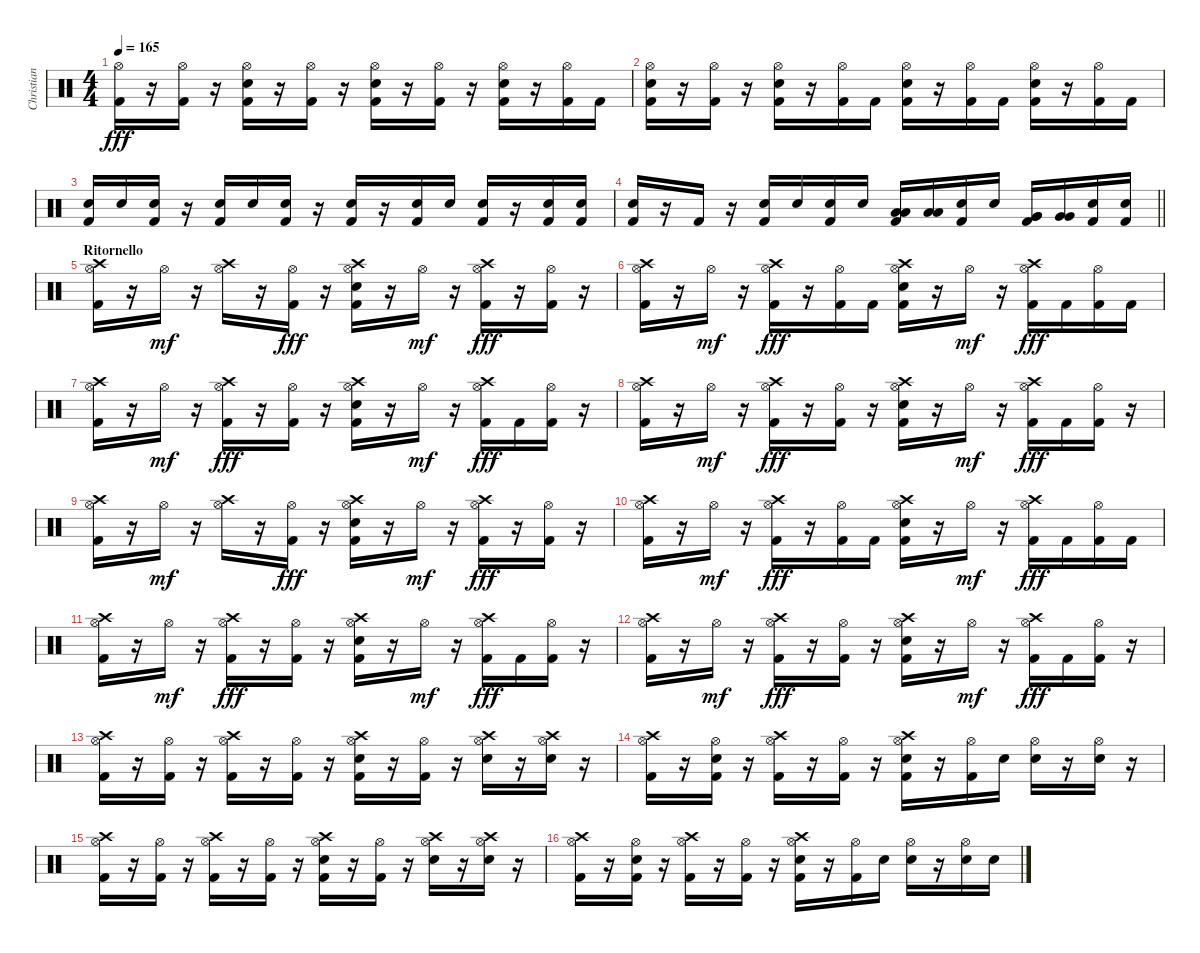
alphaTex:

\track ("Christian Coma Mora (CC)" "Christian ") {instrument percussion}
\staff {score}
\articulation defaults
\ts (4 4)
\tempo 165
\clef neutral
\ks c
("Hi-Hat (open)" "Kick (hit) 2").16{dy fff} r.16 ("Hi-Hat (open)" "Kick (hit) 2").16 r.16 ("Hi-Hat (open)" "Snare (hit) 2" "Kick (hit) 2").16 r.16 ("Hi-Hat (open)" "Kick (hit) 2").16 r.16 ("Hi-Hat (open)" "Snare (hit) 2" "Kick (hit) 2").16 r.16 ("Hi-Hat (open)" "Kick (hit) 2").16 r.16 ("Hi-Hat (open)" "Snare (hit) 2" "Kick (hit) 2").16 r.16 ("Hi-Hat (open)" "Kick (hit) 2").16 "Kick (hit) 2".16 |
("Hi-Hat (open)" "Snare (hit) 2" "Kick (hit) 2").16 r.16 ("Hi-Hat (open)" "Kick (hit) 2").16 r.16 ("Hi-Hat (open)" "Snare (hit) 2" "Kick (hit) 2").16 r.16 ("Hi-Hat (open)" "Kick (hit) 2").16 "Kick (hit) 2".16 ("Hi-Hat (open)" "Snare (hit) 2" "Kick (hit) 2").16 r.16 ("Hi-Hat (open)" "Kick (hit) 2").16 "Kick (hit) 2".16 ("Hi-Hat (open)" "Snare (hit) 2" "Kick (hit) 2").16 r.16 ("Hi-Hat (open)" "Kick (hit) 2").16 "Kick (hit) 2".16 |
("Snare (hit) 2" "Kick (hit) 2").16 "Snare (hit) 2".16 ("Snare (hit) 2" "Kick (hit) 2").16 r.16 ("Snare (hit) 2" "Kick (hit) 2").16 "Snare (hit) 2".16 ("Snare (hit) 2" "Kick (hit) 2").16 r.16 ("Snare (hit) 2" "Kick (hit) 2").16 r.16 ("Snare (hit) 2" "Kick (hit) 2").16 "Snare (hit) 2".16 ("Snare (hit) 2" "Kick (hit) 2").16 r.16 ("Snare (hit) 2" "Kick (hit) 2").16 ("Snare (hit) 2" "Kick (hit) 2").16 |
\barLineRight lightlight
("Snare (hit) 2" "Kick (hit) 2").16 r.16 "Kick (hit) 2".16 r.16 ("Snare (hit) 2" "Kick (hit) 2").16 "Snare (hit) 2".16 ("Snare (hit) 2" "Kick (hit) 2").16 "Snare (hit) 2".16 ("Low Tom (hit)" "Low Tom (hit)" "Kick (hit) 2").16 ("Low Tom (hit)" "Low Tom (hit)").16 ("Snare (hit) 2" "Kick (hit) 2").16 "Snare (hit) 2".16 ("Very Low Tom (hit)" "Very Low Tom (hit)" "Kick (hit) 2").16 ("Very Low Tom (hit)" "Very Low Tom (hit)").16 ("Snare (hit) 2" "Kick (hit) 2").16 ("Snare (hit) 2" "Kick (hit) 2").16 |
\section ("" "Ritornello")
("Crash high (hit)" "Hi-Hat (open)" "Kick (hit) 2").16 r.16 "Hi-Hat (open)".16{dy mf} r.16 ("Crash high (hit)" "Hi-Hat (open)").16 r.16 ("Hi-Hat (open)" "Kick (hit) 2").16{dy fff} r.16 ("Crash high (hit)" "Hi-Hat (open)" "Snare (hit) 2" "Kick (hit) 2").16 r.16 "Hi-Hat (open)".16{dy mf} r.16 ("Crash high (hit)" "Hi-Hat (open)" "Kick (hit) 2").16{dy fff} r.16 ("Hi-Hat (open)" "Kick (hit) 2").16 r.16 |
("Crash high (hit)" "Hi-Hat (open)" "Kick (hit) 2").16 r.16 "Hi-Hat (open)".16{dy mf} r.16 ("Crash high (hit)" "Hi-Hat (open)" "Kick (hit) 2").16{dy fff} r.16 ("Hi-Hat (open)" "Kick (hit) 2").16 "Kick (hit) 2".16 ("Crash high (hit)" "Hi-Hat (open)" "Snare (hit) 2" "Kick (hit) 2").16 r.16 "Hi-Hat (open)".16{dy mf} r.16 ("Crash high (hit)" "Hi-Hat (open)" "Kick (hit) 2").16{dy fff} "Kick (hit) 2".16 ("Hi-Hat (open)" "Kick (hit) 2").16 "Kick (hit) 2".16 |
("Crash high (hit)" "Hi-Hat (open)" "Kick (hit) 2").16 r.16 "Hi-Hat (open)".16{dy mf} r.16 ("Crash high (hit)" "Hi-Hat (open)" "Kick (hit) 2").16{dy fff} r.16 ("Hi-Hat (open)" "Kick (hit) 2").16 r.16 ("Crash high (hit)" "Hi-Hat (open)" "Snare (hit) 2" "Kick (hit) 2").16 r.16 "Hi-Hat (open)".16{dy mf} r.16 ("Crash high (hit)" "Hi-Hat (open)" "Kick (hit) 2").16{dy fff} "Kick (hit) 2".16 ("Hi-Hat (open)" "Kick (hit) 2").16 r.16 |
("Crash high (hit)" "Hi-Hat (open)" "Kick (hit) 2").16 r.16 "Hi-Hat (open)".16{dy mf} r.16 ("Crash high (hit)" "Hi-Hat (open)" "Kick (hit) 2").16{dy fff} r.16 ("Hi-Hat (open)" "Kick (hit) 2").16 r.16 ("Crash high (hit)" "Hi-Hat (open)" "Snare (hit) 2" "Kick (hit) 2").16 r.16 "Hi-Hat (open)".16{dy mf} r.16 ("Crash high (hit)" "Hi-Hat (open)" "Kick (hit) 2").16{dy fff} "Kick (hit) 2".16 ("Hi-Hat (open)" "Kick (hit) 2").16 r.16 |
("Crash high (hit)" "Hi-Hat (open)" "Kick (hit) 2").16 r.16 "Hi-Hat (open)".16{dy mf} r.16 ("Crash high (hit)" "Hi-Hat (open)").16 r.16 ("Hi-Hat (open)" "Kick (hit) 2").16{dy fff} r.16 ("Crash high (hit)" "Hi-Hat (open)" "Snare (hit) 2" "Kick (hit) 2").16 r.16 "Hi-Hat (open)".16{dy mf} r.16 ("Crash high (hit)" "Hi-Hat (open)" "Kick (hit) 2").16{dy fff} r.16 ("Hi-Hat (open)" "Kick (hit) 2").16 r.16 |
("Crash high (hit)" "Hi-Hat (open)" "Kick (hit) 2").16 r.16 "Hi-Hat (open)".16{dy mf} r.16 ("Crash high (hit)" "Hi-Hat (open)" "Kick (hit) 2").16{dy fff} r.16 ("Hi-Hat (open)" "Kick (hit) 2").16 "Kick (hit) 2".16 ("Crash high (hit)" "Hi-Hat (open)" "Snare (hit) 2" "Kick (hit) 2").16 r.16 "Hi-Hat (open)".16{dy mf} r.16 ("Crash high (hit)" "Hi-Hat (open)" "Kick (hit) 2").16{dy fff} "Kick (hit) 2".16 ("Hi-Hat (open)" "Kick (hit) 2").16 "Kick (hit) 2".16 |
("Crash high (hit)" "Hi-Hat (open)" "Kick (hit) 2").16 r.16 "Hi-Hat (open)".16{dy mf} r.16 ("Crash high (hit)" "Hi-Hat (open)" "Kick (hit) 2").16{dy fff} r.16 ("Hi-Hat (open)" "Kick (hit) 2").16 r.16 ("Crash high (hit)" "Hi-Hat (open)" "Snare (hit) 2" "Kick (hit) 2").16 r.16 "Hi-Hat (open)".16{dy mf} r.16 ("Crash high (hit)" "Hi-Hat (open)" "Kick (hit) 2").16{dy fff} "Kick (hit) 2".16 ("Hi-Hat (open)" "Kick (hit) 2").16 r.16 |
("Crash high (hit)" "Hi-Hat (open)" "Kick (hit) 2").16 r.16 "Hi-Hat (open)".16{dy mf} r.16 ("Crash high (hit)" "Hi-Hat (open)" "Kick (hit) 2").16{dy fff} r.16 ("Hi-Hat (open)" "Kick (hit) 2").16 r.16 ("Crash high (hit)" "Hi-Hat (open)" "Snare (hit) 2" "Kick (hit) 2").16 r.16 "Hi-Hat (open)".16{dy mf} r.16 ("Crash high (hit)" "Hi-Hat (open)" "Kick (hit) 2").16{dy fff} "Kick (hit) 2".16 ("Hi-Hat (open)" "Kick (hit) 2").16 r.16 |
("Crash high (hit)" "Hi-Hat (open)" "Kick (hit) 2").16 r.16 ("Hi-Hat (open)" "Kick (hit) 2").16 r.16 ("Crash high (hit)" "Hi-Hat (open)" "Kick (hit) 2").16 r.16 ("Hi-Hat (open)" "Kick (hit) 2").16 r.16 ("Crash high (hit)" "Hi-Hat (open)" "Snare (hit) 2" "Kick (hit) 2").16 r.16 ("Hi-Hat (open)" "Kick (hit) 2").16 r.16 ("Crash high (hit)" "Hi-Hat (open)" "Snare (hit) 2").16 r.16 ("Crash high (hit)" "Hi-Hat (open)" "Snare (hit) 2").16 r.16 |
("Crash high (hit)" "Hi-Hat (open)" "Kick (hit) 2").16 r.16 ("Hi-Hat (open)" "Snare (hit) 2" "Kick (hit) 2").16 r.16 ("Crash high (hit)" "Hi-Hat (open)" "Kick (hit) 2").16 r.16 ("Hi-Hat (open)" "Kick (hit) 2").16 r.16 ("Crash high (hit)" "Hi-Hat (open)" "Snare (hit) 2" "Kick (hit) 2").16 r.16 ("Hi-Hat (open)" "Kick (hit) 2").16 "Snare (hit) 2".16 ("Hi-Hat (open)" "Snare (hit) 2").16 r.16 ("Hi-Hat (open)" "Snare (hit) 2").16 r.16 |
("Crash high (hit)" "Hi-Hat (open)" "Kick (hit) 2").16 r.16 ("Hi-Hat (open)" "Kick (hit) 2").16 r.16 ("Crash high (hit)" "Hi-Hat (open)" "Kick (hit) 2").16 r.16 ("Hi-Hat (open)" "Kick (hit) 2").16 r.16 ("Crash high (hit)" "Hi-Hat (open)" "Snare (hit) 2" "Kick (hit) 2").16 r.16 ("Hi-Hat (open)" "Kick (hit) 2").16 r.16 ("Crash high (hit)" "Hi-Hat (open)" "Snare (hit) 2").16 r.16 ("Crash high (hit)" "Hi-Hat (open)" "Snare (hit) 2").16 r.16 |
("Crash high (hit)" "Hi-Hat (open)" "Kick (hit) 2").16 r.16 ("Hi-Hat (open)" "Snare (hit) 2" "Kick (hit) 2").16 r.16 ("Crash high (hit)" "Hi-Hat (open)" "Kick (hit) 2").16 r.16 ("Hi-Hat (open)" "Kick (hit) 2").16 r.16 ("Crash high (hit)" "Hi-Hat (open)" "Snare (hit) 2" "Kick (hit) 2").16 r.16 ("Hi-Hat (open)" "Kick (hit) 2").16 "Snare (hit) 2".16 ("Hi-Hat (open)" "Snare (hit) 2").16 r.16 ("Hi-Hat (open)" "Snare (hit) 2").16 "Snare (hit) 2".16
